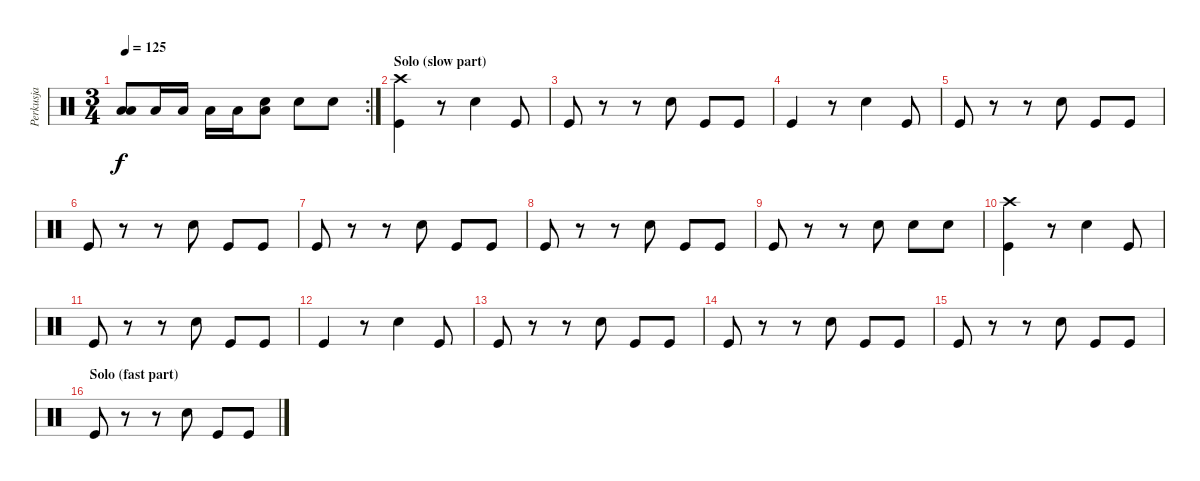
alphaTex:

\track ("Perkusja" "Perkusja") {instrument percussion}
\staff {score}
\articulation defaults
\rc 2
\ts (3 4)
\tempo 125
\clef neutral
\ks c
("Low Tom (hit)" "Low Floor Tom (hit)").8{dy f} "Low Floor Tom (hit)".16 "Low Floor Tom (hit)".16 "Low Floor Tom (hit)".16 "Low Floor Tom (hit)".16 ("Snare (hit) 2" "Low Floor Tom (hit)").8 "Electric Snare (hit)".8 "Electric Snare (hit)".8 |
\section ("" "Solo (slow part)")
("Crash high (hit)" "Kick (hit)").4 r.8 "Electric Snare (hit)".4 "Kick (hit)".8 |
"Kick (hit)".8 r.8 r.8 "Electric Snare (hit)".8 "Kick (hit)".8 "Kick (hit)".8 |
"Kick (hit)".4 r.8 "Electric Snare (hit)".4 "Kick (hit)".8 |
"Kick (hit)".8 r.8 r.8 "Electric Snare (hit)".8 "Kick (hit)".8 "Kick (hit)".8 |
"Kick (hit)".8 r.8 r.8 "Electric Snare (hit)".8 "Kick (hit)".8 "Kick (hit)".8 |
"Kick (hit)".8 r.8 r.8 "Electric Snare (hit)".8 "Kick (hit)".8 "Kick (hit)".8 |
"Kick (hit)".8 r.8 r.8 "Electric Snare (hit)".8 "Kick (hit)".8 "Kick (hit)".8 |
"Kick (hit)".8 r.8 r.8 "Electric Snare (hit)".8 "Snare (hit) 2".8 "Snare (hit) 2".8 |
("Crash high (hit)" "Kick (hit)").4 r.8 "Electric Snare (hit)".4 "Kick (hit)".8 |
"Kick (hit)".8 r.8 r.8 "Electric Snare (hit)".8 "Kick (hit)".8 "Kick (hit)".8 |
"Kick (hit)".4 r.8 "Electric Snare (hit)".4 "Kick (hit)".8 |
"Kick (hit)".8 r.8 r.8 "Electric Snare (hit)".8 "Kick (hit)".8 "Kick (hit)".8 |
"Kick (hit)".8 r.8 r.8 "Electric Snare (hit)".8 "Kick (hit)".8 "Kick (hit)".8 |
"Kick (hit)".8 r.8 r.8 "Electric Snare (hit)".8 "Kick (hit)".8 "Kick (hit)".8 |
\section ("" "Solo (fast part)")
"Kick (hit)".8 r.8 r.8 "Electric Snare (hit)".8 "Kick (hit)".8 "Kick (hit)".8
